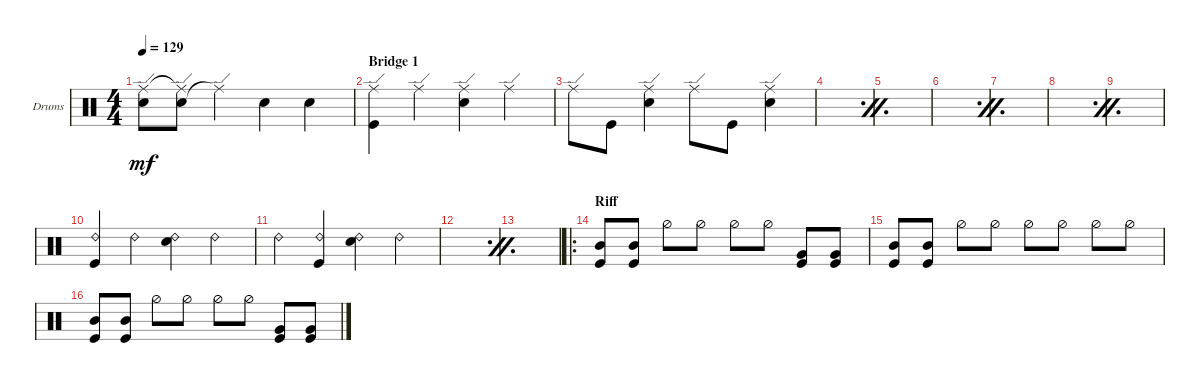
\bracketExtendMode groupsimilarinstruments
\firstSystemTrackNameOrientation horizontal
\otherSystemsTrackNameOrientation horizontal
\track ("Drumkit" "Drums") {instrument percussion}
\staff {score}
\articulation defaults
\ts (4 4)
\tempo 129
\clef neutral
\ks c
("Snare (hit) 2" "Ride (edge)").8{dy mf} ("Snare (hit) 2" "Ride (edge)"{t}).8 "Ride (edge)"{t}.4 "Snare (hit) 2".4 "Snare (hit) 2".4 |
\section ("" "Bridge 1")
\scale
0.333333 ("Ride (edge)" "Kick (hit)").4 "Ride (edge)".4 ("Ride (edge)" "Snare (hit) 2").4 "Ride (edge)".4 |
"Ride (edge)".8 "Kick (hit)".8 ("Ride (edge)" "Snare (hit) 2").4 "Ride (edge)".8 "Kick (hit)".8 ("Ride (edge)" "Snare (hit) 2").4 |
\simile firstofdouble
|
\simile secondofdouble
|
\simile firstofdouble
\scale
0.333333 |
\simile secondofdouble
|
\simile firstofdouble
|
\simile secondofdouble
\scale
0.333333 |
\simile none
("Ride (bell) 2" "Kick (hit)").4 "Ride (bell) 2".4 ("Ride (bell) 2" "Snare (hit) 2").4 "Ride (bell) 2".4 |
"Ride (bell) 2".4 ("Ride (bell) 2" "Kick (hit)").4 ("Ride (bell) 2" "Snare (hit) 2").4 "Ride (bell) 2".4 |
\simile firstofdouble
|
\simile secondofdouble
|
\ro
\section ("" "Riff")
\simile none
("Kick (hit)" "Mid Tom (hit)").8 ("Mid Tom (hit)" "Kick (hit)").8 "Hi-Hat (half)".8 "Hi-Hat (half)".8 "Hi-Hat (half)".8 "Hi-Hat (half)".8 ("Kick (hit)" "Very Low Tom (hit)").8 ("Kick (hit)" "Very Low Tom (hit)").8 |
("Kick (hit)" "Mid Tom (hit)").8 ("Mid Tom (hit)" "Kick (hit)").8 "Hi-Hat (half)".8 "Hi-Hat (half)".8 "Hi-Hat (half)".8 "Hi-Hat (half)".8 "Hi-Hat (half)".8 "Hi-Hat (half)".8 |
("Kick (hit)" "Mid Tom (hit)").8 ("Mid Tom (hit)" "Kick (hit)").8 "Hi-Hat (half)".8 "Hi-Hat (half)".8 "Hi-Hat (half)".8 "Hi-Hat (half)".8 ("Kick (hit)" "Very Low Tom (hit)").8 ("Kick (hit)" "Very Low Tom (hit)").8
